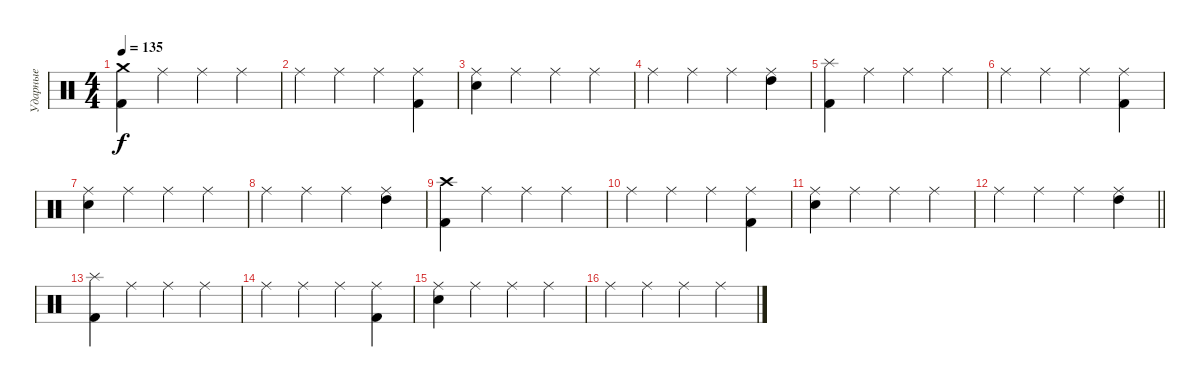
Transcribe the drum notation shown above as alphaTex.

\track ("Ударные" "Ударные") {instrument percussion}
\staff {score}
\articulation defaults
\ts (4 4)
\tempo 135
\clef neutral
\ks c
("Crash medium (hit)" "Kick (hit) 2").4{dy f} "Ride (middle)".4 "Ride (middle)".4 "Ride (middle)".4 |
"Ride (middle)".4 "Ride (middle)".4 "Ride (middle)".4 ("Ride (middle)" "Kick (hit) 2").4 |
("Ride (middle)" "Electric Snare (hit)").4 "Ride (middle)".4 "Ride (middle)".4 "Ride (middle)".4 |
"Ride (middle)".4 "Ride (middle)".4 "Ride (middle)".4 ("Ride (middle)" "High Tom (hit)").4 |
("Splash (hit)" "Kick (hit) 2").4 "Ride (middle)".4 "Ride (middle)".4 "Ride (middle)".4 |
"Ride (middle)".4 "Ride (middle)".4 "Ride (middle)".4 ("Ride (middle)" "Kick (hit) 2").4 |
("Ride (middle)" "Electric Snare (hit)").4 "Ride (middle)".4 "Ride (middle)".4 "Ride (middle)".4 |
"Ride (middle)".4 "Ride (middle)".4 "Ride (middle)".4 ("Ride (middle)" "High Tom (hit)").4 |
("Crash high (hit)" "Kick (hit) 2").4 "Ride (middle)".4 "Ride (middle)".4 "Ride (middle)".4 |
"Ride (middle)".4 "Ride (middle)".4 "Ride (middle)".4 ("Ride (middle)" "Kick (hit) 2").4 |
("Ride (middle)" "Electric Snare (hit)").4 "Ride (middle)".4 "Ride (middle)".4 "Ride (middle)".4 |
\barLineRight lightlight "Ride (middle)".4 "Ride (middle)".4 "Ride (middle)".4
("Ride (middle)" "High Tom (hit)").4 |
("Splash (hit)" "Kick (hit) 2").4 "Ride (middle)".4 "Ride (middle)".4 "Ride (middle)".4 |
"Ride (middle)".4 "Ride (middle)".4 "Ride (middle)".4 ("Ride (middle)" "Kick (hit) 2").4 |
("Ride (middle)" "Electric Snare (hit)").4 "Ride (middle)".4 "Ride (middle)".4 "Ride (middle)".4 |
"Ride (middle)".4 "Ride (middle)".4 "Ride (middle)".4 "Ride (middle)".4
